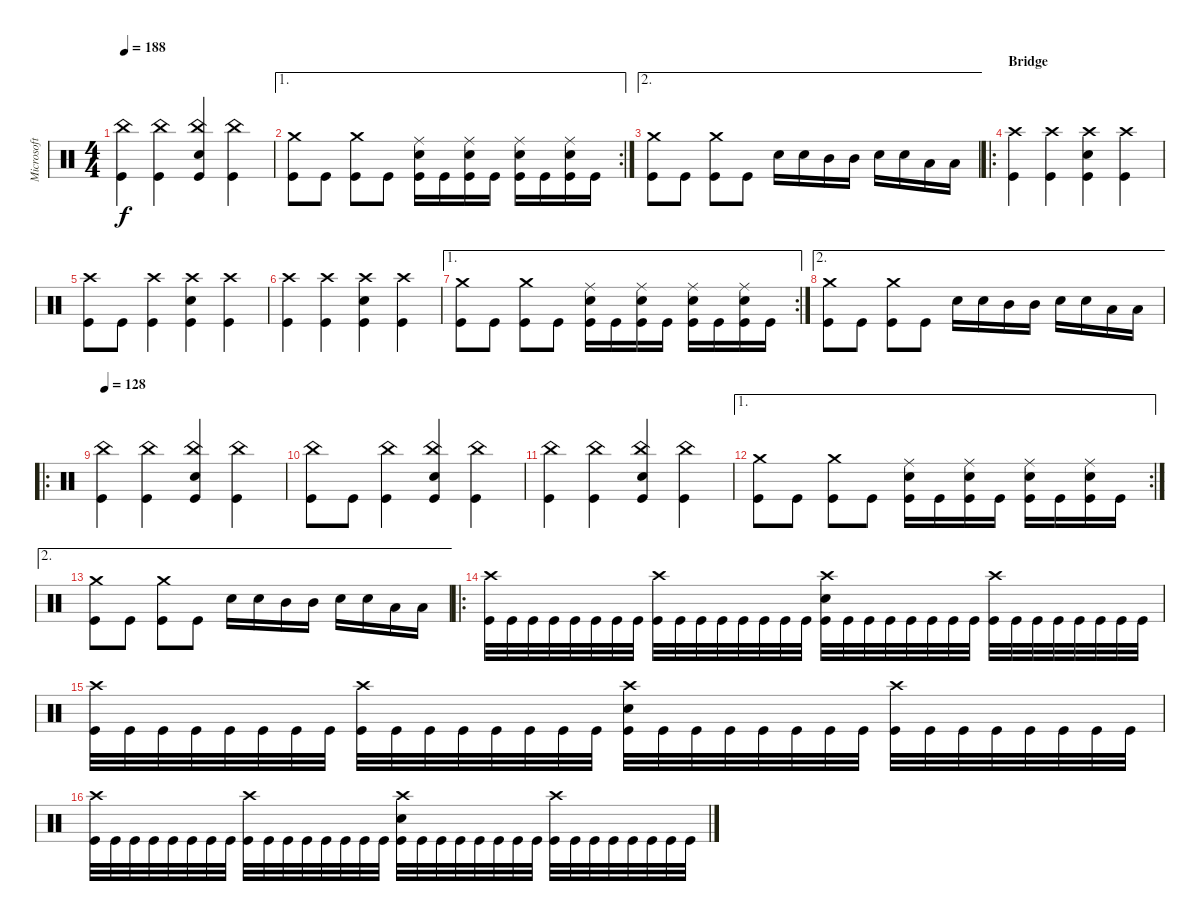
\track ("Microsoft S.A.M." "Microsoft ") {instrument percussion}
\staff {score}
\articulation defaults
\ts (4 4)
\tempo 188
\clef neutral
\ks c
("Kick (hit)" "China (hit)").4{dy f} ("Kick (hit)" "China (hit)").4 ("Kick (hit)" "China (hit)" "Snare (hit) 2").4 ("Kick (hit)" "China (hit)").4 |
\ae 1
\rc 2
("Kick (hit)" "Crash medium (hit)").8 "Kick (hit)".8 ("Kick (hit)" "Crash medium (hit)").8 "Kick (hit)".8 ("Kick (hit)" "Ride (middle)" "Snare (hit) 2").16 "Kick (hit)".16 ("Kick (hit)" "Ride (middle)" "Snare (hit) 2").16 "Kick (hit)".16 ("Kick (hit)" "Ride (middle)" "Snare (hit) 2").16 "Kick (hit)".16 ("Kick (hit)" "Ride (middle)" "Snare (hit) 2").16 "Kick (hit)".16 |
\ae 2
("Kick (hit)" "Crash medium (hit)").8 "Kick (hit)".8 ("Kick (hit)" "Crash medium (hit)").8 "Kick (hit)".8 "Snare (hit) 2".16 "Snare (hit) 2".16 "Mid Tom (hit)".16 "Mid Tom (hit)".16 "Snare (hit) 2".16 "Snare (hit) 2".16 "Low Tom (hit)".16 "Low Tom (hit)".16 |
\ro
\section ("" "Bridge")
("Kick (hit)" "Crash high (hit)").4 ("Kick (hit)" "Crash high (hit)").4 ("Kick (hit)" "Snare (hit) 2" "Crash high (hit)").4 ("Kick (hit)" "Crash high (hit)").4 |
("Kick (hit)" "Crash high (hit)").8 "Kick (hit)".8 ("Kick (hit)" "Crash high (hit)").4 ("Kick (hit)" "Snare (hit) 2" "Crash high (hit)").4 ("Kick (hit)" "Crash high (hit)").4 |
("Kick (hit)" "Crash high (hit)").4 ("Kick (hit)" "Crash high (hit)").4 ("Kick (hit)" "Snare (hit) 2" "Crash high (hit)").4 ("Kick (hit)" "Crash high (hit)").4 |
\ae 1
\rc 2
("Kick (hit)" "Crash medium (hit)").8 "Kick (hit)".8 ("Kick (hit)" "Crash medium (hit)").8 "Kick (hit)".8 ("Kick (hit)" "Ride (middle)" "Snare (hit) 2").16 "Kick (hit)".16 ("Kick (hit)" "Ride (middle)" "Snare (hit) 2").16 "Kick (hit)".16 ("Kick (hit)" "Ride (middle)" "Snare (hit) 2").16 "Kick (hit)".16 ("Kick (hit)" "Ride (middle)" "Snare (hit) 2").16 "Kick (hit)".16 |
\ae 2
("Kick (hit)" "Crash medium (hit)").8 "Kick (hit)".8 ("Kick (hit)" "Crash medium (hit)").8 "Kick (hit)".8 "Snare (hit) 2".16 "Snare (hit) 2".16 "Mid Tom (hit)".16 "Mid Tom (hit)".16 "Snare (hit) 2".16 "Snare (hit) 2".16 "Low Tom (hit)".16 "Low Tom (hit)".16 |
\ro
\tempo 128
("Kick (hit)" "China (hit)").4 ("Kick (hit)" "China (hit)").4 ("Kick (hit)" "China (hit)" "Snare (hit) 2").4 ("Kick (hit)" "China (hit)").4 |
("Kick (hit)" "China (hit)").8 "Kick (hit)".8 ("Kick (hit)" "China (hit)").4 ("Kick (hit)" "China (hit)" "Snare (hit) 2").4 ("Kick (hit)" "China (hit)").4 |
("Kick (hit)" "China (hit)").4 ("Kick (hit)" "China (hit)").4 ("Kick (hit)" "China (hit)" "Snare (hit) 2").4 ("Kick (hit)" "China (hit)").4 |
\ae 1
\rc 2
("Kick (hit)" "Crash medium (hit)").8 "Kick (hit)".8 ("Kick (hit)" "Crash medium (hit)").8 "Kick (hit)".8 ("Kick (hit)" "Ride (middle)" "Snare (hit) 2").16 "Kick (hit)".16 ("Kick (hit)" "Ride (middle)" "Snare (hit) 2").16 "Kick (hit)".16 ("Kick (hit)" "Ride (middle)" "Snare (hit) 2").16 "Kick (hit)".16 ("Kick (hit)" "Ride (middle)" "Snare (hit) 2").16 "Kick (hit)".16 |
\ae 2
("Kick (hit)" "Crash medium (hit)").8 "Kick (hit)".8 ("Kick (hit)" "Crash medium (hit)").8 "Kick (hit)".8 "Snare (hit) 2".16 "Snare (hit) 2".16 "Mid Tom (hit)".16 "Mid Tom (hit)".16 "Snare (hit) 2".16 "Snare (hit) 2".16 "Low Tom (hit)".16 "Low Tom (hit)".16 |
\ro
("Kick (hit)" "Crash high (hit)").32 "Kick (hit)".32 "Kick (hit)".32 "Kick (hit)".32 "Kick (hit)".32 "Kick (hit)".32 "Kick (hit)".32 "Kick (hit)".32 ("Kick (hit)" "Crash high (hit)").32 "Kick (hit)".32 "Kick (hit)".32 "Kick (hit)".32 "Kick (hit)".32 "Kick (hit)".32 "Kick (hit)".32 "Kick (hit)".32 ("Kick (hit)" "Crash high (hit)" "Snare (hit) 2").32 "Kick (hit)".32 "Kick (hit)".32 "Kick (hit)".32 "Kick (hit)".32 "Kick (hit)".32 "Kick (hit)".32 "Kick (hit)".32 ("Kick (hit)" "Crash high (hit)").32 "Kick (hit)".32 "Kick (hit)".32 "Kick (hit)".32 "Kick (hit)".32 "Kick (hit)".32 "Kick (hit)".32 "Kick (hit)".32 |
("Kick (hit)" "Crash high (hit)").32 "Kick (hit)".32 "Kick (hit)".32 "Kick (hit)".32 "Kick (hit)".32 "Kick (hit)".32 "Kick (hit)".32 "Kick (hit)".32 ("Kick (hit)" "Crash high (hit)").32 "Kick (hit)".32 "Kick (hit)".32 "Kick (hit)".32 "Kick (hit)".32 "Kick (hit)".32 "Kick (hit)".32 "Kick (hit)".32 ("Kick (hit)" "Crash high (hit)" "Snare (hit) 2").32 "Kick (hit)".32 "Kick (hit)".32 "Kick (hit)".32 "Kick (hit)".32 "Kick (hit)".32 "Kick (hit)".32 "Kick (hit)".32 ("Kick (hit)" "Crash high (hit)").32 "Kick (hit)".32 "Kick (hit)".32 "Kick (hit)".32 "Kick (hit)".32 "Kick (hit)".32 "Kick (hit)".32 "Kick (hit)".32 |
("Kick (hit)" "Crash high (hit)").32 "Kick (hit)".32 "Kick (hit)".32 "Kick (hit)".32 "Kick (hit)".32 "Kick (hit)".32 "Kick (hit)".32 "Kick (hit)".32 ("Kick (hit)" "Crash high (hit)").32 "Kick (hit)".32 "Kick (hit)".32 "Kick (hit)".32 "Kick (hit)".32 "Kick (hit)".32 "Kick (hit)".32 "Kick (hit)".32 ("Kick (hit)" "Crash high (hit)" "Snare (hit) 2").32 "Kick (hit)".32 "Kick (hit)".32 "Kick (hit)".32 "Kick (hit)".32 "Kick (hit)".32 "Kick (hit)".32 "Kick (hit)".32 ("Kick (hit)" "Crash high (hit)").32 "Kick (hit)".32 "Kick (hit)".32 "Kick (hit)".32 "Kick (hit)".32 "Kick (hit)".32 "Kick (hit)".32 "Kick (hit)".32
